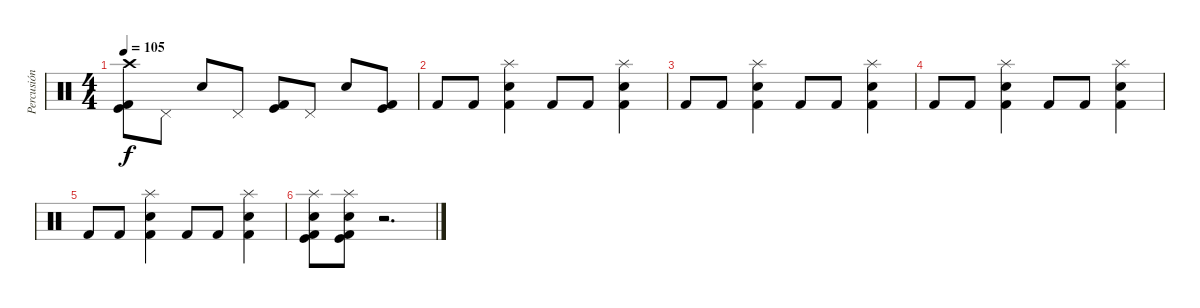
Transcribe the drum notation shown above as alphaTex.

\track ("Percusión" "Percusión") {instrument percussion}
\staff {score}
\articulation defaults
\ts (4 4)
\tempo 105
\clef neutral
\ks c
("Kick (hit) 2" "Kick (hit)" "Crash high (hit)").8{dy f} "Pedal Hi-Hat (hit)".8 "Electric Snare (hit)".8 "Pedal Hi-Hat (hit)".8 ("Kick (hit) 2" "Kick (hit)").8 "Pedal Hi-Hat (hit)".8 "Electric Snare (hit)".8 ("Kick (hit) 2" "Kick (hit)").8 |
"Kick (hit) 2".8 "Kick (hit) 2".8 ("Electric Snare (hit)" "Kick (hit) 2" "Splash (hit)").4 "Kick (hit) 2".8 "Kick (hit) 2".8 ("Electric Snare (hit)" "Kick (hit) 2" "Splash (hit)").4 |
"Kick (hit) 2".8 "Kick (hit) 2".8 ("Electric Snare (hit)" "Kick (hit) 2" "Splash (hit)").4 "Kick (hit) 2".8 "Kick (hit) 2".8 ("Electric Snare (hit)" "Kick (hit) 2" "Splash (hit)").4 |
"Kick (hit) 2".8 "Kick (hit) 2".8 ("Electric Snare (hit)" "Kick (hit) 2" "Splash (hit)").4 "Kick (hit) 2".8 "Kick (hit) 2".8 ("Electric Snare (hit)" "Kick (hit) 2" "Splash (hit)").4 |
"Kick (hit) 2".8 "Kick (hit) 2".8 ("Electric Snare (hit)" "Kick (hit) 2" "Splash (hit)").4 "Kick (hit) 2".8 "Kick (hit) 2".8 ("Electric Snare (hit)" "Kick (hit) 2" "Splash (hit)").4 |
("Electric Snare (hit)" "Splash (hit)" "Kick (hit) 2" "Kick (hit)").8 ("Electric Snare (hit)" "Splash (hit)" "Kick (hit) 2" "Kick (hit)").8 r.2{d}
